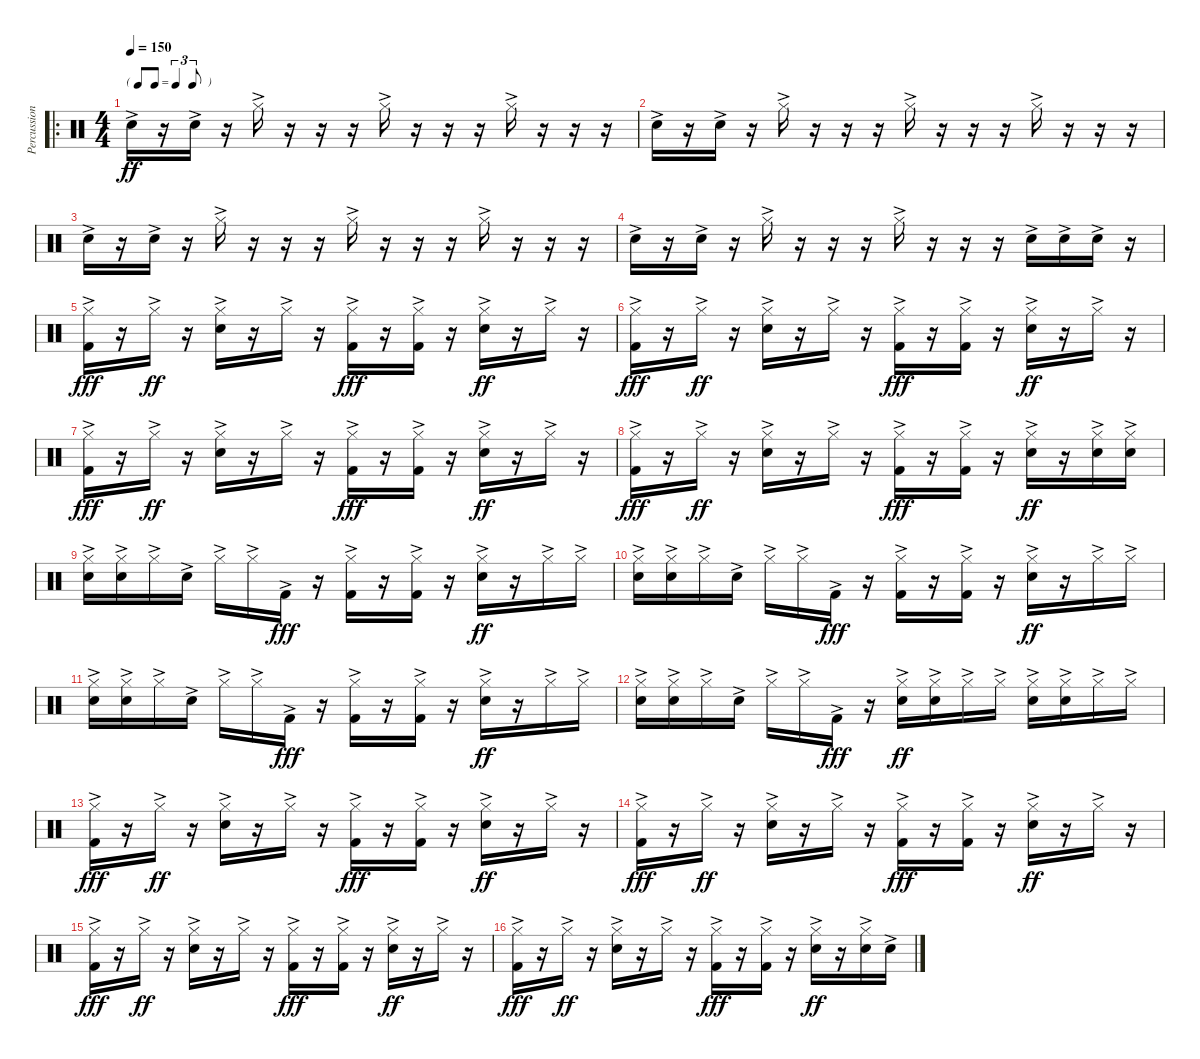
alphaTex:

\track ("Percussion" "Percussion") {instrument percussion}
\staff {score}
\articulation defaults
\ro
\ts (4 4)
\tf triplet8th
\tempo 150
\clef neutral
\ks c "Snare (hit) 2"{ac}.16{dy ff}
r.16 "Snare (hit) 2"{ac}.16 r.16 "Hi-Hat (closed)"{ac}.16 r.16 r.16 r.16 "Hi-Hat (closed)"{ac}.16 r.16 r.16 r.16 "Hi-Hat (closed)"{ac}.16 r.16 r.16 r.16 |
"Snare (hit) 2"{ac}.16 r.16 "Snare (hit) 2"{ac}.16 r.16 "Hi-Hat (closed)"{ac}.16 r.16 r.16 r.16 "Hi-Hat (closed)"{ac}.16 r.16 r.16 r.16 "Hi-Hat (closed)"{ac}.16 r.16 r.16 r.16 |
"Snare (hit) 2"{ac}.16 r.16 "Snare (hit) 2"{ac}.16 r.16 "Hi-Hat (closed)"{ac}.16 r.16 r.16 r.16 "Hi-Hat (closed)"{ac}.16 r.16 r.16 r.16 "Hi-Hat (closed)"{ac}.16 r.16 r.16 r.16 |
"Snare (hit) 2"{ac}.16 r.16 "Snare (hit) 2"{ac}.16 r.16 "Hi-Hat (closed)"{ac}.16 r.16 r.16 r.16 "Hi-Hat (closed)"{ac}.16 r.16 r.16 r.16 "Snare (hit) 2"{ac}.16 "Snare (hit) 2"{ac}.16 "Snare (hit) 2"{ac}.16 r.16 |
("Hi-Hat (closed)"{ac} "Kick (hit) 2"{ac}).16{dy fff} r.16 "Hi-Hat (closed)"{ac}.16{dy ff} r.16 ("Hi-Hat (closed)"{ac} "Snare (hit) 2"{ac}).16 r.16 "Hi-Hat (closed)"{ac}.16 r.16 ("Hi-Hat (closed)"{ac} "Kick (hit) 2"{ac}).16{dy fff} r.16 ("Hi-Hat (closed)"{ac} "Kick (hit) 2"{ac}).16 r.16 ("Hi-Hat (closed)"{ac} "Snare (hit) 2"{ac}).16{dy ff} r.16 "Hi-Hat (closed)"{ac}.16 r.16 |
("Hi-Hat (closed)"{ac} "Kick (hit) 2"{ac}).16{dy fff} r.16 "Hi-Hat (closed)"{ac}.16{dy ff} r.16 ("Hi-Hat (closed)"{ac} "Snare (hit) 2"{ac}).16 r.16 "Hi-Hat (closed)"{ac}.16 r.16 ("Hi-Hat (closed)"{ac} "Kick (hit) 2"{ac}).16{dy fff} r.16 ("Hi-Hat (closed)"{ac} "Kick (hit) 2"{ac}).16 r.16 ("Hi-Hat (closed)"{ac} "Snare (hit) 2"{ac}).16{dy ff} r.16 "Hi-Hat (closed)"{ac}.16 r.16 |
("Hi-Hat (closed)"{ac} "Kick (hit) 2"{ac}).16{dy fff} r.16 "Hi-Hat (closed)"{ac}.16{dy ff} r.16 ("Hi-Hat (closed)"{ac} "Snare (hit) 2"{ac}).16 r.16 "Hi-Hat (closed)"{ac}.16 r.16 ("Hi-Hat (closed)"{ac} "Kick (hit) 2"{ac}).16{dy fff} r.16 ("Hi-Hat (closed)"{ac} "Kick (hit) 2"{ac}).16 r.16 ("Hi-Hat (closed)"{ac} "Snare (hit) 2"{ac}).16{dy ff} r.16 "Hi-Hat (closed)"{ac}.16 r.16 |
("Hi-Hat (closed)"{ac} "Kick (hit) 2"{ac}).16{dy fff} r.16 "Hi-Hat (closed)"{ac}.16{dy ff} r.16 ("Hi-Hat (closed)"{ac} "Snare (hit) 2"{ac}).16 r.16 "Hi-Hat (closed)"{ac}.16 r.16 ("Hi-Hat (closed)"{ac} "Kick (hit) 2"{ac}).16{dy fff} r.16 ("Hi-Hat (closed)"{ac} "Kick (hit) 2"{ac}).16 r.16 ("Hi-Hat (closed)"{ac} "Snare (hit) 2"{ac}).16{dy ff} r.16 ("Hi-Hat (closed)" "Snare (hit) 2"{ac}).16 ("Hi-Hat (closed)" "Snare (hit) 2"{ac}).16 |
("Hi-Hat (closed)"{ac} "Snare (hit) 2"{ac}).16 ("Hi-Hat (closed)"{ac} "Snare (hit) 2"{ac}).16 "Hi-Hat (closed)"{ac}.16 "Snare (hit) 2"{ac}.16 "Hi-Hat (closed)"{ac}.16 "Hi-Hat (closed)"{ac}.16 "Kick (hit) 2"{ac}.16{dy fff} r.16 ("Hi-Hat (closed)"{ac} "Kick (hit) 2"{ac}).16 r.16 ("Hi-Hat (closed)"{ac} "Kick (hit) 2"{ac}).16 r.16 ("Hi-Hat (closed)"{ac} "Snare (hit) 2"{ac}).16{dy ff} r.16 "Hi-Hat (closed)"{ac}.16 "Hi-Hat (closed)"{ac}.16 |
("Hi-Hat (closed)"{ac} "Snare (hit) 2"{ac}).16 ("Hi-Hat (closed)"{ac} "Snare (hit) 2"{ac}).16 "Hi-Hat (closed)"{ac}.16 "Snare (hit) 2"{ac}.16 "Hi-Hat (closed)"{ac}.16 "Hi-Hat (closed)"{ac}.16 "Kick (hit) 2"{ac}.16{dy fff} r.16 ("Hi-Hat (closed)"{ac} "Kick (hit) 2"{ac}).16 r.16 ("Hi-Hat (closed)"{ac} "Kick (hit) 2"{ac}).16 r.16 ("Hi-Hat (closed)"{ac} "Snare (hit) 2"{ac}).16{dy ff} r.16 "Hi-Hat (closed)"{ac}.16 "Hi-Hat (closed)"{ac}.16 |
("Hi-Hat (closed)"{ac} "Snare (hit) 2"{ac}).16 ("Hi-Hat (closed)"{ac} "Snare (hit) 2"{ac}).16 "Hi-Hat (closed)"{ac}.16 "Snare (hit) 2"{ac}.16 "Hi-Hat (closed)"{ac}.16 "Hi-Hat (closed)"{ac}.16 "Kick (hit) 2"{ac}.16{dy fff} r.16 ("Hi-Hat (closed)"{ac} "Kick (hit) 2"{ac}).16 r.16 ("Hi-Hat (closed)"{ac} "Kick (hit) 2"{ac}).16 r.16 ("Hi-Hat (closed)"{ac} "Snare (hit) 2"{ac}).16{dy ff} r.16 "Hi-Hat (closed)"{ac}.16 "Hi-Hat (closed)"{ac}.16 |
("Hi-Hat (closed)"{ac} "Snare (hit) 2"{ac}).16 ("Hi-Hat (closed)"{ac} "Snare (hit) 2"{ac}).16 "Hi-Hat (closed)"{ac}.16 "Snare (hit) 2"{ac}.16 "Hi-Hat (closed)"{ac}.16 "Hi-Hat (closed)"{ac}.16 "Kick (hit) 2"{ac}.16{dy fff} r.16 ("Hi-Hat (closed)"{ac} "Snare (hit) 2"{ac}).16{dy ff} ("Hi-Hat (closed)"{ac} "Snare (hit) 2"{ac}).16 "Hi-Hat (closed)"{ac}.16 "Hi-Hat (closed)"{ac}.16 ("Hi-Hat (closed)"{ac} "Snare (hit) 2"{ac}).16 ("Hi-Hat (closed)"{ac} "Snare (hit) 2"{ac}).16 "Hi-Hat (closed)"{ac}.16 "Hi-Hat (closed)"{ac}.16 |
("Hi-Hat (closed)"{ac} "Kick (hit) 2"{ac}).16{dy fff} r.16 "Hi-Hat (closed)"{ac}.16{dy ff} r.16 ("Hi-Hat (closed)"{ac} "Snare (hit) 2"{ac}).16 r.16 "Hi-Hat (closed)"{ac}.16 r.16 ("Hi-Hat (closed)"{ac} "Kick (hit) 2"{ac}).16{dy fff} r.16 ("Hi-Hat (closed)"{ac} "Kick (hit) 2"{ac}).16 r.16 ("Hi-Hat (closed)"{ac} "Snare (hit) 2"{ac}).16{dy ff} r.16 "Hi-Hat (closed)"{ac}.16 r.16 |
("Hi-Hat (closed)"{ac} "Kick (hit) 2"{ac}).16{dy fff} r.16 "Hi-Hat (closed)"{ac}.16{dy ff} r.16 ("Hi-Hat (closed)"{ac} "Snare (hit) 2"{ac}).16 r.16 "Hi-Hat (closed)"{ac}.16 r.16 ("Hi-Hat (closed)"{ac} "Kick (hit) 2"{ac}).16{dy fff} r.16 ("Hi-Hat (closed)"{ac} "Kick (hit) 2"{ac}).16 r.16 ("Hi-Hat (closed)"{ac} "Snare (hit) 2"{ac}).16{dy ff} r.16 "Hi-Hat (closed)"{ac}.16 r.16 |
("Hi-Hat (closed)"{ac} "Kick (hit) 2"{ac}).16{dy fff} r.16 "Hi-Hat (closed)"{ac}.16{dy ff} r.16 ("Hi-Hat (closed)"{ac} "Snare (hit) 2"{ac}).16 r.16 "Hi-Hat (closed)"{ac}.16 r.16 ("Hi-Hat (closed)"{ac} "Kick (hit) 2"{ac}).16{dy fff} r.16 ("Hi-Hat (closed)"{ac} "Kick (hit) 2"{ac}).16 r.16 ("Hi-Hat (closed)"{ac} "Snare (hit) 2"{ac}).16{dy ff} r.16 "Hi-Hat (closed)"{ac}.16 r.16 |
("Hi-Hat (closed)"{ac} "Kick (hit) 2"{ac}).16{dy fff} r.16 "Hi-Hat (closed)"{ac}.16{dy ff} r.16 ("Hi-Hat (closed)"{ac} "Snare (hit) 2"{ac}).16 r.16 "Hi-Hat (closed)"{ac}.16 r.16 ("Hi-Hat (closed)"{ac} "Kick (hit) 2"{ac}).16{dy fff} r.16 ("Hi-Hat (closed)"{ac} "Kick (hit) 2"{ac}).16 r.16 ("Hi-Hat (closed)"{ac} "Snare (hit) 2"{ac}).16{dy ff} r.16 ("Hi-Hat (closed)"{ac} "Snare (hit) 2"{ac}).16 "Snare (hit) 2"{ac}.16
